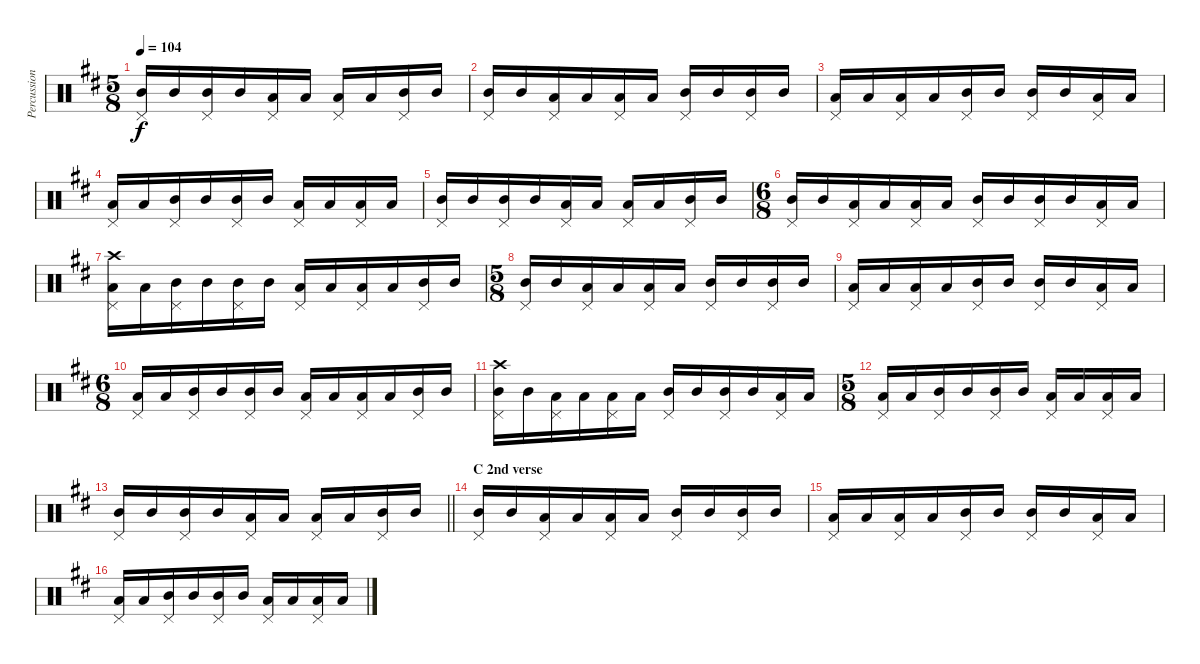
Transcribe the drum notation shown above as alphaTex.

\track ("Percussion" "Percussion") {instrument percussion}
\staff {score}
\articulation defaults
\ts (5 8)
\tempo 104
\clef neutral
\ks d
("Pedal Hi-Hat (hit)" "Mid Tom (hit)").16{dy f} "Mid Tom (hit)".16 ("Pedal Hi-Hat (hit)" "Mid Tom (hit)").16 "Mid Tom (hit)".16 ("Pedal Hi-Hat (hit)" "Low Tom (hit)").16 "Low Tom (hit)".16 ("Pedal Hi-Hat (hit)" "Low Tom (hit)").16 "Low Tom (hit)".16 ("Pedal Hi-Hat (hit)" "Mid Tom (hit)").16 "Mid Tom (hit)".16 |
("Pedal Hi-Hat (hit)" "Mid Tom (hit)").16 "Mid Tom (hit)".16 ("Pedal Hi-Hat (hit)" "Low Tom (hit)").16 "Low Tom (hit)".16 ("Pedal Hi-Hat (hit)" "Low Tom (hit)").16 "Low Tom (hit)".16 ("Pedal Hi-Hat (hit)" "Mid Tom (hit)").16 "Mid Tom (hit)".16 ("Pedal Hi-Hat (hit)" "Mid Tom (hit)").16 "Mid Tom (hit)".16 |
("Pedal Hi-Hat (hit)" "Low Tom (hit)").16 "Low Tom (hit)".16 ("Pedal Hi-Hat (hit)" "Low Tom (hit)").16 "Low Tom (hit)".16 ("Pedal Hi-Hat (hit)" "Mid Tom (hit)").16 "Mid Tom (hit)".16 ("Pedal Hi-Hat (hit)" "Mid Tom (hit)").16 "Mid Tom (hit)".16 ("Pedal Hi-Hat (hit)" "Low Tom (hit)").16 "Low Tom (hit)".16 |
("Pedal Hi-Hat (hit)" "Low Tom (hit)").16 "Low Tom (hit)".16 ("Pedal Hi-Hat (hit)" "Mid Tom (hit)").16 "Mid Tom (hit)".16 ("Pedal Hi-Hat (hit)" "Mid Tom (hit)").16 "Mid Tom (hit)".16 ("Pedal Hi-Hat (hit)" "Low Tom (hit)").16 "Low Tom (hit)".16 ("Pedal Hi-Hat (hit)" "Low Tom (hit)").16 "Low Tom (hit)".16 |
("Pedal Hi-Hat (hit)" "Mid Tom (hit)").16 "Mid Tom (hit)".16 ("Pedal Hi-Hat (hit)" "Mid Tom (hit)").16 "Mid Tom (hit)".16 ("Pedal Hi-Hat (hit)" "Low Tom (hit)").16 "Low Tom (hit)".16 ("Pedal Hi-Hat (hit)" "Low Tom (hit)").16 "Low Tom (hit)".16 ("Pedal Hi-Hat (hit)" "Mid Tom (hit)").16 "Mid Tom (hit)".16 |
\ts (6 8)
("Pedal Hi-Hat (hit)" "Mid Tom (hit)").16 "Mid Tom (hit)".16 ("Pedal Hi-Hat (hit)" "Low Tom (hit)").16 "Low Tom (hit)".16 ("Pedal Hi-Hat (hit)" "Low Tom (hit)").16 "Low Tom (hit)".16 ("Pedal Hi-Hat (hit)" "Mid Tom (hit)").16 "Mid Tom (hit)".16 ("Pedal Hi-Hat (hit)" "Mid Tom (hit)").16 "Mid Tom (hit)".16 ("Pedal Hi-Hat (hit)" "Low Tom (hit)").16 "Low Tom (hit)".16 |
("Pedal Hi-Hat (hit)" "Crash high (hit)" "Low Tom (hit)").16 "Low Tom (hit)".16 ("Pedal Hi-Hat (hit)" "Mid Tom (hit)").16 "Mid Tom (hit)".16 ("Pedal Hi-Hat (hit)" "Mid Tom (hit)").16 "Mid Tom (hit)".16 ("Pedal Hi-Hat (hit)" "Low Tom (hit)").16 "Low Tom (hit)".16 ("Pedal Hi-Hat (hit)" "Low Tom (hit)").16 "Low Tom (hit)".16 ("Pedal Hi-Hat (hit)" "Mid Tom (hit)").16 "Mid Tom (hit)".16 |
\ts (5 8)
("Pedal Hi-Hat (hit)" "Mid Tom (hit)").16 "Mid Tom (hit)".16 ("Pedal Hi-Hat (hit)" "Low Tom (hit)").16 "Low Tom (hit)".16 ("Pedal Hi-Hat (hit)" "Low Tom (hit)").16 "Low Tom (hit)".16 ("Pedal Hi-Hat (hit)" "Mid Tom (hit)").16 "Mid Tom (hit)".16 ("Pedal Hi-Hat (hit)" "Mid Tom (hit)").16 "Mid Tom (hit)".16 |
("Pedal Hi-Hat (hit)" "Low Tom (hit)").16 "Low Tom (hit)".16 ("Pedal Hi-Hat (hit)" "Low Tom (hit)").16 "Low Tom (hit)".16 ("Pedal Hi-Hat (hit)" "Mid Tom (hit)").16 "Mid Tom (hit)".16 ("Pedal Hi-Hat (hit)" "Mid Tom (hit)").16 "Mid Tom (hit)".16 ("Pedal Hi-Hat (hit)" "Low Tom (hit)").16 "Low Tom (hit)".16 |
\ts (6 8)
("Pedal Hi-Hat (hit)" "Low Tom (hit)").16 "Low Tom (hit)".16 ("Pedal Hi-Hat (hit)" "Mid Tom (hit)").16 "Mid Tom (hit)".16 ("Pedal Hi-Hat (hit)" "Mid Tom (hit)").16 "Mid Tom (hit)".16 ("Pedal Hi-Hat (hit)" "Low Tom (hit)").16 "Low Tom (hit)".16 ("Pedal Hi-Hat (hit)" "Low Tom (hit)").16 "Low Tom (hit)".16 ("Pedal Hi-Hat (hit)" "Mid Tom (hit)").16 "Mid Tom (hit)".16 |
("Pedal Hi-Hat (hit)" "Crash high (hit)" "Mid Tom (hit)").16 "Mid Tom (hit)".16 ("Pedal Hi-Hat (hit)" "Low Tom (hit)").16 "Low Tom (hit)".16 ("Pedal Hi-Hat (hit)" "Low Tom (hit)").16 "Low Tom (hit)".16 ("Pedal Hi-Hat (hit)" "Mid Tom (hit)").16 "Mid Tom (hit)".16 ("Pedal Hi-Hat (hit)" "Mid Tom (hit)").16 "Mid Tom (hit)".16 ("Pedal Hi-Hat (hit)" "Low Tom (hit)").16 "Low Tom (hit)".16 |
\ts (5 8)
("Pedal Hi-Hat (hit)" "Low Tom (hit)").16 "Low Tom (hit)".16 ("Pedal Hi-Hat (hit)" "Mid Tom (hit)").16 "Mid Tom (hit)".16 ("Pedal Hi-Hat (hit)" "Mid Tom (hit)").16 "Mid Tom (hit)".16 ("Pedal Hi-Hat (hit)" "Low Tom (hit)").16 "Low Tom (hit)".16 ("Pedal Hi-Hat (hit)" "Low Tom (hit)").16 "Low Tom (hit)".16 |
\barLineRight lightlight
("Pedal Hi-Hat (hit)" "Mid Tom (hit)").16 "Mid Tom (hit)".16 ("Pedal Hi-Hat (hit)" "Mid Tom (hit)").16 "Mid Tom (hit)".16 ("Pedal Hi-Hat (hit)" "Low Tom (hit)").16 "Low Tom (hit)".16 ("Pedal Hi-Hat (hit)" "Low Tom (hit)").16 "Low Tom (hit)".16 ("Pedal Hi-Hat (hit)" "Mid Tom (hit)").16 "Mid Tom (hit)".16 |
\section ("" "C 2nd verse")
("Pedal Hi-Hat (hit)" "Mid Tom (hit)").16 "Mid Tom (hit)".16 ("Pedal Hi-Hat (hit)" "Low Tom (hit)").16 "Low Tom (hit)".16 ("Pedal Hi-Hat (hit)" "Low Tom (hit)").16 "Low Tom (hit)".16 ("Pedal Hi-Hat (hit)" "Mid Tom (hit)").16 "Mid Tom (hit)".16 ("Pedal Hi-Hat (hit)" "Mid Tom (hit)").16 "Mid Tom (hit)".16 |
("Pedal Hi-Hat (hit)" "Low Tom (hit)").16 "Low Tom (hit)".16 ("Pedal Hi-Hat (hit)" "Low Tom (hit)").16 "Low Tom (hit)".16 ("Pedal Hi-Hat (hit)" "Mid Tom (hit)").16 "Mid Tom (hit)".16 ("Pedal Hi-Hat (hit)" "Mid Tom (hit)").16 "Mid Tom (hit)".16 ("Pedal Hi-Hat (hit)" "Low Tom (hit)").16 "Low Tom (hit)".16 |
("Pedal Hi-Hat (hit)" "Low Tom (hit)").16 "Low Tom (hit)".16 ("Pedal Hi-Hat (hit)" "Mid Tom (hit)").16 "Mid Tom (hit)".16 ("Pedal Hi-Hat (hit)" "Mid Tom (hit)").16 "Mid Tom (hit)".16 ("Pedal Hi-Hat (hit)" "Low Tom (hit)").16 "Low Tom (hit)".16 ("Pedal Hi-Hat (hit)" "Low Tom (hit)").16 "Low Tom (hit)".16
